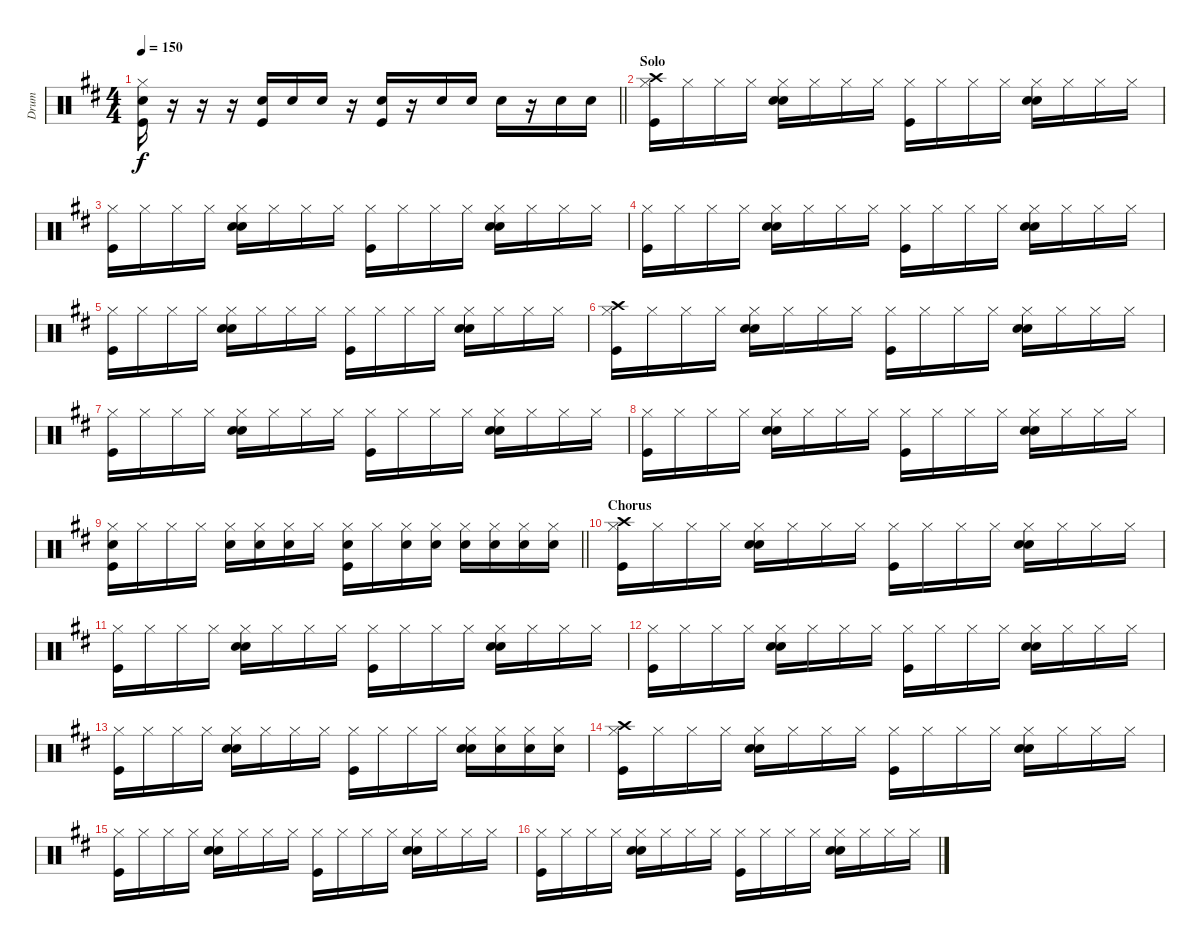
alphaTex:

\track ("Drum" "Drum") {instrument percussion}
\staff {score}
\articulation defaults
\ts (4 4)
\tempo 150
\clef neutral
\barLineRight lightlight
\ks d
("Snare (hit) 2" "Kick (hit)" "Hi-Hat (closed)").16{dy f} r.16 r.16 r.16 ("Kick (hit)" "Snare (hit) 2").16 "Snare (hit) 2".16 "Snare (hit) 2".16 r.16 ("Kick (hit)" "Snare (hit) 2").16 r.16 "Snare (hit) 2".16 "Snare (hit) 2".16 "Snare (hit) 2".16 r.16 "Snare (hit) 2".16 "Snare (hit) 2".16 |
\section ("" "Solo")
("Crash high (hit)" "Hi-Hat (closed)" "Kick (hit)").16 "Hi-Hat (closed)".16 "Hi-Hat (closed)".16 "Hi-Hat (closed)".16 ("Hi-Hat (closed)" "Snare (hit) 2" "Hand Clap (hit)").16 "Hi-Hat (closed)".16 "Hi-Hat (closed)".16 "Hi-Hat (closed)".16 ("Hi-Hat (closed)" "Kick (hit)").16 "Hi-Hat (closed)".16 "Hi-Hat (closed)".16 "Hi-Hat (closed)".16 ("Hi-Hat (closed)" "Snare (hit) 2" "Hand Clap (hit)").16 "Hi-Hat (closed)".16 "Hi-Hat (closed)".16 "Hi-Hat (closed)".16 |
("Hi-Hat (closed)" "Kick (hit)").16 "Hi-Hat (closed)".16 "Hi-Hat (closed)".16 "Hi-Hat (closed)".16 ("Hi-Hat (closed)" "Snare (hit) 2" "Hand Clap (hit)").16 "Hi-Hat (closed)".16 "Hi-Hat (closed)".16 "Hi-Hat (closed)".16 ("Hi-Hat (closed)" "Kick (hit)").16 "Hi-Hat (closed)".16 "Hi-Hat (closed)".16 "Hi-Hat (closed)".16 ("Hi-Hat (closed)" "Snare (hit) 2" "Hand Clap (hit)").16 "Hi-Hat (closed)".16 "Hi-Hat (closed)".16 "Hi-Hat (closed)".16 |
("Hi-Hat (closed)" "Kick (hit)").16 "Hi-Hat (closed)".16 "Hi-Hat (closed)".16 "Hi-Hat (closed)".16 ("Hi-Hat (closed)" "Snare (hit) 2" "Hand Clap (hit)").16 "Hi-Hat (closed)".16 "Hi-Hat (closed)".16 "Hi-Hat (closed)".16 ("Hi-Hat (closed)" "Kick (hit)").16 "Hi-Hat (closed)".16 "Hi-Hat (closed)".16 "Hi-Hat (closed)".16 ("Hi-Hat (closed)" "Snare (hit) 2" "Hand Clap (hit)").16 "Hi-Hat (closed)".16 "Hi-Hat (closed)".16 "Hi-Hat (closed)".16 |
("Hi-Hat (closed)" "Kick (hit)").16 "Hi-Hat (closed)".16 "Hi-Hat (closed)".16 "Hi-Hat (closed)".16 ("Hi-Hat (closed)" "Snare (hit) 2" "Hand Clap (hit)").16 "Hi-Hat (closed)".16 "Hi-Hat (closed)".16 "Hi-Hat (closed)".16 ("Hi-Hat (closed)" "Kick (hit)").16 "Hi-Hat (closed)".16 "Hi-Hat (closed)".16 "Hi-Hat (closed)".16 ("Hi-Hat (closed)" "Snare (hit) 2" "Hand Clap (hit)").16 "Hi-Hat (closed)".16 "Hi-Hat (closed)".16 "Hi-Hat (closed)".16 |
("Crash high (hit)" "Hi-Hat (closed)" "Kick (hit)").16 "Hi-Hat (closed)".16 "Hi-Hat (closed)".16 "Hi-Hat (closed)".16 ("Hi-Hat (closed)" "Snare (hit) 2" "Hand Clap (hit)").16 "Hi-Hat (closed)".16 "Hi-Hat (closed)".16 "Hi-Hat (closed)".16 ("Hi-Hat (closed)" "Kick (hit)").16 "Hi-Hat (closed)".16 "Hi-Hat (closed)".16 "Hi-Hat (closed)".16 ("Hi-Hat (closed)" "Snare (hit) 2" "Hand Clap (hit)").16 "Hi-Hat (closed)".16 "Hi-Hat (closed)".16 "Hi-Hat (closed)".16 |
("Hi-Hat (closed)" "Kick (hit)").16 "Hi-Hat (closed)".16 "Hi-Hat (closed)".16 "Hi-Hat (closed)".16 ("Hi-Hat (closed)" "Snare (hit) 2" "Hand Clap (hit)").16 "Hi-Hat (closed)".16 "Hi-Hat (closed)".16 "Hi-Hat (closed)".16 ("Hi-Hat (closed)" "Kick (hit)").16 "Hi-Hat (closed)".16 "Hi-Hat (closed)".16 "Hi-Hat (closed)".16 ("Hi-Hat (closed)" "Snare (hit) 2" "Hand Clap (hit)").16 "Hi-Hat (closed)".16 "Hi-Hat (closed)".16 "Hi-Hat (closed)".16 |
("Hi-Hat (closed)" "Kick (hit)").16 "Hi-Hat (closed)".16 "Hi-Hat (closed)".16 "Hi-Hat (closed)".16 ("Hi-Hat (closed)" "Snare (hit) 2" "Hand Clap (hit)").16 "Hi-Hat (closed)".16 "Hi-Hat (closed)".16 "Hi-Hat (closed)".16 ("Hi-Hat (closed)" "Kick (hit)").16 "Hi-Hat (closed)".16 "Hi-Hat (closed)".16 "Hi-Hat (closed)".16 ("Hi-Hat (closed)" "Snare (hit) 2" "Hand Clap (hit)").16 "Hi-Hat (closed)".16 "Hi-Hat (closed)".16 "Hi-Hat (closed)".16 |
\barLineRight lightlight
("Hi-Hat (closed)" "Kick (hit)" "Snare (hit) 2").16 "Hi-Hat (closed)".16 "Hi-Hat (closed)".16 "Hi-Hat (closed)".16 ("Hi-Hat (closed)" "Snare (hit) 2").16 ("Hi-Hat (closed)" "Snare (hit) 2").16 ("Hi-Hat (closed)" "Snare (hit) 2").16 "Hi-Hat (closed)".16 ("Hi-Hat (closed)" "Kick (hit)" "Snare (hit) 2").16 "Hi-Hat (closed)".16 ("Hi-Hat (closed)" "Snare (hit) 2").16 ("Hi-Hat (closed)" "Snare (hit) 2").16 ("Hi-Hat (closed)" "Snare (hit) 2").16 ("Hi-Hat (closed)" "Snare (hit) 2").16 ("Hi-Hat (closed)" "Snare (hit) 2").16 ("Hi-Hat (closed)" "Snare (hit) 2").16 |
\section ("" "Chorus")
("Crash high (hit)" "Hi-Hat (closed)" "Kick (hit)").16 "Hi-Hat (closed)".16 "Hi-Hat (closed)".16 "Hi-Hat (closed)".16 ("Hi-Hat (closed)" "Snare (hit) 2" "Hand Clap (hit)").16 "Hi-Hat (closed)".16 "Hi-Hat (closed)".16 "Hi-Hat (closed)".16 ("Hi-Hat (closed)" "Kick (hit)").16 "Hi-Hat (closed)".16 "Hi-Hat (closed)".16 "Hi-Hat (closed)".16 ("Hi-Hat (closed)" "Snare (hit) 2" "Hand Clap (hit)").16 "Hi-Hat (closed)".16 "Hi-Hat (closed)".16 "Hi-Hat (closed)".16 |
("Hi-Hat (closed)" "Kick (hit)").16 "Hi-Hat (closed)".16 "Hi-Hat (closed)".16 "Hi-Hat (closed)".16 ("Hi-Hat (closed)" "Snare (hit) 2" "Hand Clap (hit)").16 "Hi-Hat (closed)".16 "Hi-Hat (closed)".16 "Hi-Hat (closed)".16 ("Hi-Hat (closed)" "Kick (hit)").16 "Hi-Hat (closed)".16 "Hi-Hat (closed)".16 "Hi-Hat (closed)".16 ("Hi-Hat (closed)" "Snare (hit) 2" "Hand Clap (hit)").16 "Hi-Hat (closed)".16 "Hi-Hat (closed)".16 "Hi-Hat (closed)".16 |
("Hi-Hat (closed)" "Kick (hit)").16 "Hi-Hat (closed)".16 "Hi-Hat (closed)".16 "Hi-Hat (closed)".16 ("Hi-Hat (closed)" "Snare (hit) 2" "Hand Clap (hit)").16 "Hi-Hat (closed)".16 "Hi-Hat (closed)".16 "Hi-Hat (closed)".16 ("Hi-Hat (closed)" "Kick (hit)").16 "Hi-Hat (closed)".16 "Hi-Hat (closed)".16 "Hi-Hat (closed)".16 ("Hi-Hat (closed)" "Snare (hit) 2" "Hand Clap (hit)").16 "Hi-Hat (closed)".16 "Hi-Hat (closed)".16 "Hi-Hat (closed)".16 |
("Hi-Hat (closed)" "Kick (hit)").16 "Hi-Hat (closed)".16 "Hi-Hat (closed)".16 "Hi-Hat (closed)".16 ("Hi-Hat (closed)" "Snare (hit) 2" "Hand Clap (hit)").16 "Hi-Hat (closed)".16 "Hi-Hat (closed)".16 "Hi-Hat (closed)".16 ("Hi-Hat (closed)" "Kick (hit)").16 "Hi-Hat (closed)".16 "Hi-Hat (closed)".16 "Hi-Hat (closed)".16 ("Hi-Hat (closed)" "Snare (hit) 2" "Hand Clap (hit)").16 ("Hi-Hat (closed)" "Snare (hit) 2").16 ("Hi-Hat (closed)" "Snare (hit) 2").16 ("Hi-Hat (closed)" "Snare (hit) 2").16 |
("Crash high (hit)" "Hi-Hat (closed)" "Kick (hit)").16 "Hi-Hat (closed)".16 "Hi-Hat (closed)".16 "Hi-Hat (closed)".16 ("Hi-Hat (closed)" "Snare (hit) 2" "Hand Clap (hit)").16 "Hi-Hat (closed)".16 "Hi-Hat (closed)".16 "Hi-Hat (closed)".16 ("Hi-Hat (closed)" "Kick (hit)").16 "Hi-Hat (closed)".16 "Hi-Hat (closed)".16 "Hi-Hat (closed)".16 ("Hi-Hat (closed)" "Snare (hit) 2" "Hand Clap (hit)").16 "Hi-Hat (closed)".16 "Hi-Hat (closed)".16 "Hi-Hat (closed)".16 |
("Hi-Hat (closed)" "Kick (hit)").16 "Hi-Hat (closed)".16 "Hi-Hat (closed)".16 "Hi-Hat (closed)".16 ("Hi-Hat (closed)" "Snare (hit) 2" "Hand Clap (hit)").16 "Hi-Hat (closed)".16 "Hi-Hat (closed)".16 "Hi-Hat (closed)".16 ("Hi-Hat (closed)" "Kick (hit)").16 "Hi-Hat (closed)".16 "Hi-Hat (closed)".16 "Hi-Hat (closed)".16 ("Hi-Hat (closed)" "Snare (hit) 2" "Hand Clap (hit)").16 "Hi-Hat (closed)".16 "Hi-Hat (closed)".16 "Hi-Hat (closed)".16 |
("Hi-Hat (closed)" "Kick (hit)").16 "Hi-Hat (closed)".16 "Hi-Hat (closed)".16 "Hi-Hat (closed)".16 ("Hi-Hat (closed)" "Snare (hit) 2" "Hand Clap (hit)").16 "Hi-Hat (closed)".16 "Hi-Hat (closed)".16 "Hi-Hat (closed)".16 ("Hi-Hat (closed)" "Kick (hit)").16 "Hi-Hat (closed)".16 "Hi-Hat (closed)".16 "Hi-Hat (closed)".16 ("Hi-Hat (closed)" "Snare (hit) 2" "Hand Clap (hit)").16 "Hi-Hat (closed)".16 "Hi-Hat (closed)".16 "Hi-Hat (closed)".16
